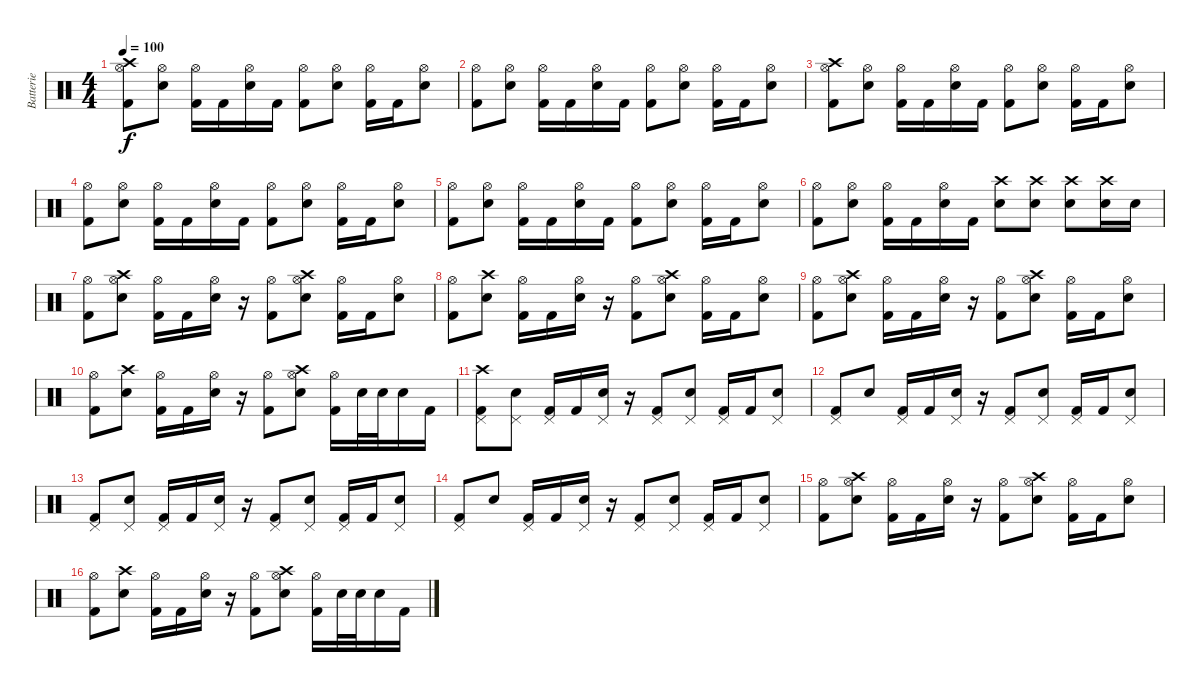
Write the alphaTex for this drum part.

\track ("Batterie" "Batterie") {instrument percussion}
\staff {score}
\articulation defaults
\ts (4 4)
\tempo 100
\clef neutral
\ks c
("Crash high (hit)" "Hi-Hat (open)" "Kick (hit) 2").8{dy f} ("Hi-Hat (open)" "Electric Snare (hit)").8 ("Hi-Hat (open)" "Kick (hit) 2").16 "Kick (hit) 2".16 ("Hi-Hat (open)" "Electric Snare (hit)").16 "Kick (hit) 2".16 ("Hi-Hat (open)" "Kick (hit) 2").8 ("Hi-Hat (open)" "Electric Snare (hit)").8 ("Hi-Hat (open)" "Kick (hit) 2").16 "Kick (hit) 2".16 ("Hi-Hat (open)" "Electric Snare (hit)").8 |
("Hi-Hat (open)" "Kick (hit) 2").8 ("Hi-Hat (open)" "Electric Snare (hit)").8 ("Hi-Hat (open)" "Kick (hit) 2").16 "Kick (hit) 2".16 ("Hi-Hat (open)" "Electric Snare (hit)").16 "Kick (hit) 2".16 ("Hi-Hat (open)" "Kick (hit) 2").8 ("Hi-Hat (open)" "Electric Snare (hit)").8 ("Hi-Hat (open)" "Kick (hit) 2").16 "Kick (hit) 2".16 ("Hi-Hat (open)" "Electric Snare (hit)").8 |
("Crash high (hit)" "Hi-Hat (open)" "Kick (hit) 2").8 ("Hi-Hat (open)" "Electric Snare (hit)").8 ("Hi-Hat (open)" "Kick (hit) 2").16 "Kick (hit) 2".16 ("Hi-Hat (open)" "Electric Snare (hit)").16 "Kick (hit) 2".16 ("Hi-Hat (open)" "Kick (hit) 2").8 ("Hi-Hat (open)" "Electric Snare (hit)").8 ("Hi-Hat (open)" "Kick (hit) 2").16 "Kick (hit) 2".16 ("Hi-Hat (open)" "Electric Snare (hit)").8 |
("Hi-Hat (open)" "Kick (hit) 2").8 ("Hi-Hat (open)" "Electric Snare (hit)").8 ("Hi-Hat (open)" "Kick (hit) 2").16 "Kick (hit) 2".16 ("Hi-Hat (open)" "Electric Snare (hit)").16 "Kick (hit) 2".16 ("Hi-Hat (open)" "Kick (hit) 2").8 ("Hi-Hat (open)" "Electric Snare (hit)").8 ("Hi-Hat (open)" "Kick (hit) 2").16 "Kick (hit) 2".16 ("Hi-Hat (open)" "Electric Snare (hit)").8 |
("Hi-Hat (open)" "Kick (hit) 2").8 ("Hi-Hat (open)" "Electric Snare (hit)").8 ("Hi-Hat (open)" "Kick (hit) 2").16 "Kick (hit) 2".16 ("Hi-Hat (open)" "Electric Snare (hit)").16 "Kick (hit) 2".16 ("Hi-Hat (open)" "Kick (hit) 2").8 ("Hi-Hat (open)" "Electric Snare (hit)").8 ("Hi-Hat (open)" "Kick (hit) 2").16 "Kick (hit) 2".16 ("Hi-Hat (open)" "Electric Snare (hit)").8 |
("Hi-Hat (open)" "Kick (hit) 2").8 ("Hi-Hat (open)" "Electric Snare (hit)").8 ("Hi-Hat (open)" "Kick (hit) 2").16 "Kick (hit) 2".16 ("Hi-Hat (open)" "Electric Snare (hit)").16 "Kick (hit) 2".16 ("Crash high (hit)" "Electric Snare (hit)").8 ("Crash high (hit)" "Electric Snare (hit)").8 ("Crash high (hit)" "Electric Snare (hit)").8 ("Crash high (hit)" "Electric Snare (hit)").16 "Electric Snare (hit)".16 |
("Hi-Hat (open)" "Kick (hit) 2").8 ("Crash high (hit)" "Hi-Hat (open)" "Electric Snare (hit)").8 ("Hi-Hat (open)" "Kick (hit) 2").16 "Kick (hit) 2".16 ("Hi-Hat (open)" "Electric Snare (hit)").16 r.16 ("Hi-Hat (open)" "Kick (hit) 2").8 ("Crash high (hit)" "Hi-Hat (open)" "Electric Snare (hit)").8 ("Hi-Hat (open)" "Kick (hit) 2").16 "Kick (hit) 2".16 ("Hi-Hat (open)" "Electric Snare (hit)").8 |
("Hi-Hat (open)" "Kick (hit) 2").8 ("Crash high (hit)" "Electric Snare (hit)").8 ("Hi-Hat (open)" "Kick (hit) 2").16 "Kick (hit) 2".16 ("Hi-Hat (open)" "Electric Snare (hit)").16 r.16 ("Hi-Hat (open)" "Kick (hit) 2").8 ("Crash high (hit)" "Hi-Hat (open)" "Electric Snare (hit)").8 ("Hi-Hat (open)" "Kick (hit) 2").16 "Kick (hit) 2".16 ("Hi-Hat (open)" "Electric Snare (hit)").8 |
("Hi-Hat (open)" "Kick (hit) 2").8 ("Crash high (hit)" "Hi-Hat (open)" "Electric Snare (hit)").8 ("Hi-Hat (open)" "Kick (hit) 2").16 "Kick (hit) 2".16 ("Hi-Hat (open)" "Electric Snare (hit)").16 r.16 ("Hi-Hat (open)" "Kick (hit) 2").8 ("Crash high (hit)" "Hi-Hat (open)" "Electric Snare (hit)").8 ("Hi-Hat (open)" "Kick (hit) 2").16 "Kick (hit) 2".16 ("Hi-Hat (open)" "Electric Snare (hit)").8 |
("Hi-Hat (open)" "Kick (hit) 2").8 ("Crash high (hit)" "Electric Snare (hit)").8 ("Hi-Hat (open)" "Kick (hit) 2").16 "Kick (hit) 2".16 ("Hi-Hat (open)" "Electric Snare (hit)").16 r.16 ("Hi-Hat (open)" "Kick (hit) 2").8 ("Crash high (hit)" "Hi-Hat (open)" "Electric Snare (hit)").8 ("Hi-Hat (open)" "Kick (hit) 2").16 "Electric Snare (hit)".32 "Electric Snare (hit)".32 "Electric Snare (hit)".16 "Kick (hit) 2".16 |
("Crash high (hit)" "Pedal Hi-Hat (hit)" "Kick (hit) 2").8 ("Pedal Hi-Hat (hit)" "Electric Snare (hit)").8 ("Pedal Hi-Hat (hit)" "Kick (hit) 2").16 "Kick (hit) 2".16 ("Pedal Hi-Hat (hit)" "Electric Snare (hit)").16 r.16 ("Pedal Hi-Hat (hit)" "Kick (hit) 2").8 ("Pedal Hi-Hat (hit)" "Electric Snare (hit)").8 ("Pedal Hi-Hat (hit)" "Kick (hit) 2").16 "Kick (hit) 2".16 ("Pedal Hi-Hat (hit)" "Electric Snare (hit)").8 |
("Pedal Hi-Hat (hit)" "Kick (hit) 2").8 "Electric Snare (hit)".8 ("Pedal Hi-Hat (hit)" "Kick (hit) 2").16 "Kick (hit) 2".16 ("Pedal Hi-Hat (hit)" "Electric Snare (hit)").16 r.16 ("Pedal Hi-Hat (hit)" "Kick (hit) 2").8 ("Pedal Hi-Hat (hit)" "Electric Snare (hit)").8 ("Pedal Hi-Hat (hit)" "Kick (hit) 2").16 "Kick (hit) 2".16 ("Pedal Hi-Hat (hit)" "Electric Snare (hit)").8 |
("Pedal Hi-Hat (hit)" "Kick (hit) 2").8 ("Pedal Hi-Hat (hit)" "Electric Snare (hit)").8 ("Pedal Hi-Hat (hit)" "Kick (hit) 2").16 "Kick (hit) 2".16 ("Pedal Hi-Hat (hit)" "Electric Snare (hit)").16 r.16 ("Pedal Hi-Hat (hit)" "Kick (hit) 2").8 ("Pedal Hi-Hat (hit)" "Electric Snare (hit)").8 ("Pedal Hi-Hat (hit)" "Kick (hit) 2").16 "Kick (hit) 2".16 ("Pedal Hi-Hat (hit)" "Electric Snare (hit)").8 |
("Pedal Hi-Hat (hit)" "Kick (hit) 2").8 "Electric Snare (hit)".8 ("Pedal Hi-Hat (hit)" "Kick (hit) 2").16 "Kick (hit) 2".16 ("Pedal Hi-Hat (hit)" "Electric Snare (hit)").16 r.16 ("Pedal Hi-Hat (hit)" "Kick (hit) 2").8 ("Pedal Hi-Hat (hit)" "Electric Snare (hit)").8 ("Pedal Hi-Hat (hit)" "Kick (hit) 2").16 "Kick (hit) 2".16 ("Pedal Hi-Hat (hit)" "Electric Snare (hit)").8 |
("Hi-Hat (open)" "Kick (hit) 2").8 ("Crash high (hit)" "Hi-Hat (open)" "Electric Snare (hit)").8 ("Hi-Hat (open)" "Kick (hit) 2").16 "Kick (hit) 2".16 ("Hi-Hat (open)" "Electric Snare (hit)").16 r.16 ("Hi-Hat (open)" "Kick (hit) 2").8 ("Crash high (hit)" "Hi-Hat (open)" "Electric Snare (hit)").8 ("Hi-Hat (open)" "Kick (hit) 2").16 "Kick (hit) 2".16 ("Hi-Hat (open)" "Electric Snare (hit)").8 |
("Hi-Hat (open)" "Kick (hit) 2").8 ("Crash high (hit)" "Electric Snare (hit)").8 ("Hi-Hat (open)" "Kick (hit) 2").16 "Kick (hit) 2".16 ("Hi-Hat (open)" "Electric Snare (hit)").16 r.16 ("Hi-Hat (open)" "Kick (hit) 2").8 ("Crash high (hit)" "Hi-Hat (open)" "Electric Snare (hit)").8 ("Hi-Hat (open)" "Kick (hit) 2").16 "Electric Snare (hit)".32 "Electric Snare (hit)".32 "Electric Snare (hit)".16 "Kick (hit) 2".16
